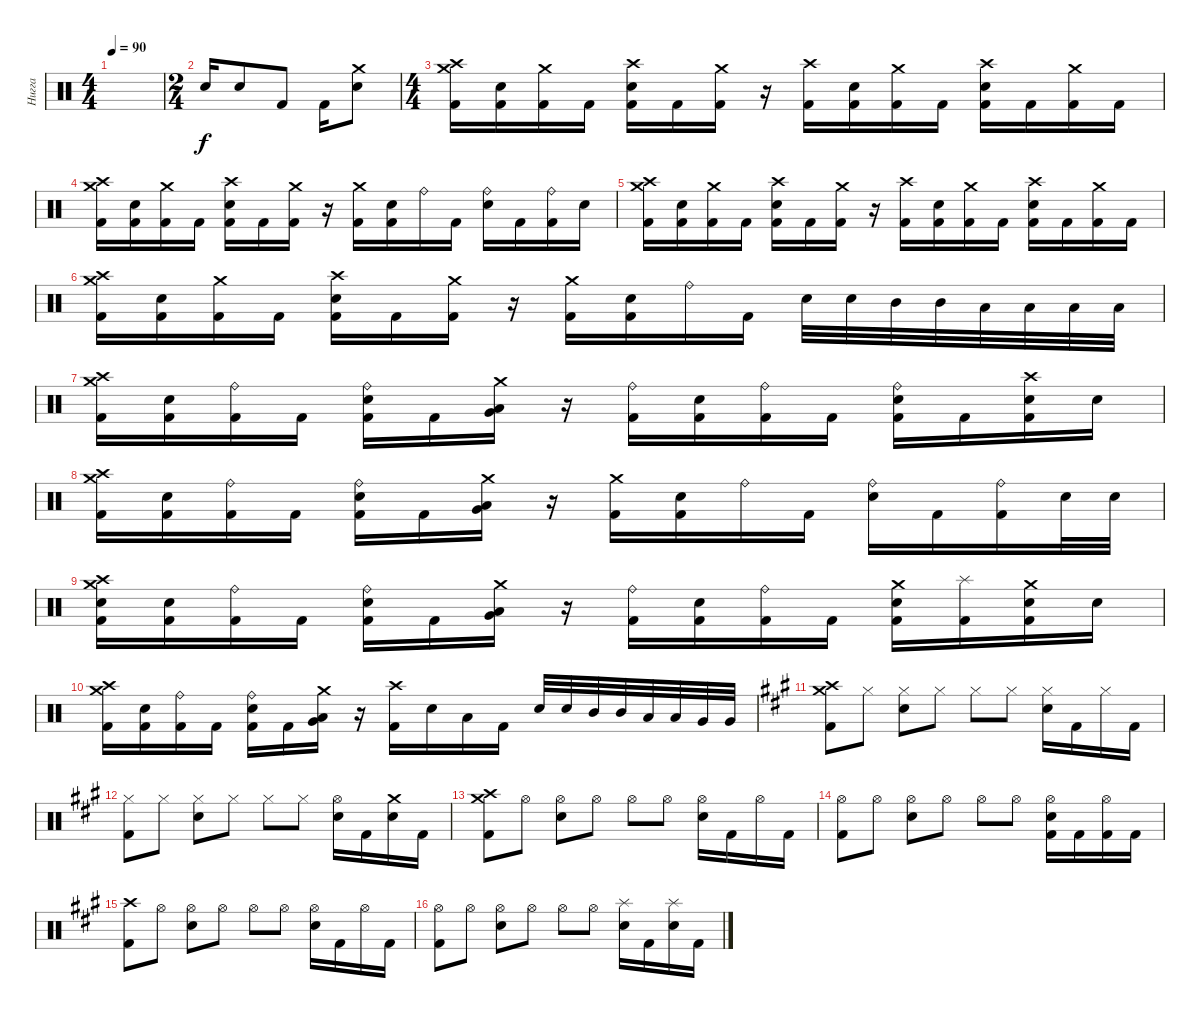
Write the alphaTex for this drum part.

\track ("Нигга" "Нигга") {instrument percussion}
\staff
\articulation defaults
\ts (4 4)
\tempo 90
\clef neutral
\ks c
|
\ts (2 4)
"Electric Snare (hit)".16 "Electric Snare (hit)".8 "Kick (hit) 2".8 "Kick (hit) 2".16 ("Crash medium (hit)" "Electric Snare (hit)").8 |
\ts (4 4)
("Crash high (hit)" "Crash medium (hit)" "Kick (hit) 2").16 ("Electric Snare (hit)" "Kick (hit) 2").16 ("Crash medium (hit)" "Kick (hit) 2").16 "Kick (hit) 2".16 ("Crash high (hit)" "Electric Snare (hit)" "Kick (hit) 2").16 "Kick (hit) 2".16 ("Crash medium (hit)" "Kick (hit) 2").16 r.16 ("Crash high (hit)" "Kick (hit) 2").16 ("Electric Snare (hit)" "Kick (hit) 2").16 ("Crash medium (hit)" "Kick (hit) 2").16 "Kick (hit) 2".16 ("Crash high (hit)" "Electric Snare (hit)" "Kick (hit) 2").16 "Kick (hit) 2".16 ("Crash medium (hit)" "Kick (hit) 2").16 "Kick (hit) 2".16 |
("Crash high (hit)" "Crash medium (hit)" "Kick (hit) 2").16 ("Electric Snare (hit)" "Kick (hit) 2").16 ("Crash medium (hit)" "Kick (hit) 2").16 "Kick (hit) 2".16 ("Crash high (hit)" "Electric Snare (hit)" "Kick (hit) 2").16 "Kick (hit) 2".16 ("Crash medium (hit)" "Kick (hit) 2").16 r.16 ("Crash medium (hit)" "Kick (hit) 2").16 ("Electric Snare (hit)" "Kick (hit) 2").16 "Ride (bell)".16 "Kick (hit) 2".16 ("Ride (bell)" "Electric Snare (hit)").16 "Kick (hit) 2".16 ("Ride (bell)" "Kick (hit) 2").16 "Electric Snare (hit)".16 |
("Crash high (hit)" "Crash medium (hit)" "Kick (hit) 2").16 ("Electric Snare (hit)" "Kick (hit) 2").16 ("Crash medium (hit)" "Kick (hit) 2").16 "Kick (hit) 2".16 ("Crash high (hit)" "Electric Snare (hit)" "Kick (hit) 2").16 "Kick (hit) 2".16 ("Crash medium (hit)" "Kick (hit) 2").16 r.16 ("Crash high (hit)" "Kick (hit) 2").16 ("Electric Snare (hit)" "Kick (hit) 2").16 ("Crash medium (hit)" "Kick (hit) 2").16 "Kick (hit) 2".16 ("Crash high (hit)" "Electric Snare (hit)" "Kick (hit) 2").16 "Kick (hit) 2".16 ("Crash medium (hit)" "Kick (hit) 2").16 "Kick (hit) 2".16 |
("Crash high (hit)" "Crash medium (hit)" "Kick (hit) 2").16 ("Electric Snare (hit)" "Kick (hit) 2").16 ("Crash medium (hit)" "Kick (hit) 2").16 "Kick (hit) 2".16 ("Crash high (hit)" "Electric Snare (hit)" "Kick (hit) 2").16 "Kick (hit) 2".16 ("Crash medium (hit)" "Kick (hit) 2").16 r.16 ("Crash medium (hit)" "Kick (hit) 2").16 ("Electric Snare (hit)" "Kick (hit) 2").16 "Ride (bell)".16 "Kick (hit) 2".16 "Electric Snare (hit)".32 "Electric Snare (hit)".32 "Mid Tom (hit)".32 "Mid Tom (hit)".32 "Low Tom (hit)".32 "Low Tom (hit)".32 "Low Tom (hit)".32 "Low Tom (hit)".32 |
("Crash high (hit)" "Crash medium (hit)" "Kick (hit) 2").16 ("Electric Snare (hit)" "Kick (hit) 2").16 ("Ride (bell)" "Kick (hit) 2").16 "Kick (hit) 2".16 ("Ride (bell)" "Electric Snare (hit)" "Kick (hit) 2").16 "Kick (hit) 2".16 ("Crash medium (hit)" "Very Low Tom (hit)" "Low Tom (hit)").16 r.16 ("Ride (bell)" "Kick (hit) 2").16 ("Electric Snare (hit)" "Kick (hit) 2").16 ("Ride (bell)" "Kick (hit) 2").16 "Kick (hit) 2".16 ("Ride (bell)" "Electric Snare (hit)" "Kick (hit) 2").16 "Kick (hit) 2".16 ("Crash high (hit)" "Electric Snare (hit)" "Kick (hit) 2").16 "Electric Snare (hit)".16 |
("Crash high (hit)" "Crash medium (hit)" "Kick (hit) 2").16 ("Electric Snare (hit)" "Kick (hit) 2").16 ("Ride (bell)" "Kick (hit) 2").16 "Kick (hit) 2".16 ("Ride (bell)" "Electric Snare (hit)" "Kick (hit) 2").16 "Kick (hit) 2".16 ("Crash medium (hit)" "Very Low Tom (hit)" "Low Tom (hit)").16 r.16 ("Crash medium (hit)" "Kick (hit) 2").16 ("Electric Snare (hit)" "Kick (hit) 2").16 "Ride (bell)".16 "Kick (hit) 2".16 ("Ride (bell)" "Electric Snare (hit)").16 "Kick (hit) 2".16 ("Ride (bell)" "Kick (hit) 2").16 "Electric Snare (hit)".32 "Electric Snare (hit)".32 |
("Crash high (hit)" "Crash medium (hit)" "Electric Snare (hit)" "Kick (hit) 2").16 ("Electric Snare (hit)" "Kick (hit) 2").16 ("Ride (bell)" "Kick (hit) 2").16 "Kick (hit) 2".16 ("Ride (bell)" "Electric Snare (hit)" "Kick (hit) 2").16 "Kick (hit) 2".16 ("Crash medium (hit)" "Very Low Tom (hit)" "Low Tom (hit)").16 r.16 ("Ride (bell)" "Kick (hit) 2").16 ("Electric Snare (hit)" "Kick (hit) 2").16 ("Ride (bell)" "Kick (hit) 2").16 "Kick (hit) 2".16 ("Crash medium (hit)" "Electric Snare (hit)" "Kick (hit) 2").16 ("Splash (hit)" "Kick (hit) 2").16 ("Crash medium (hit)" "Electric Snare (hit)" "Kick (hit) 2").16 "Electric Snare (hit)".16 |
("Crash high (hit)" "Crash medium (hit)" "Kick (hit) 2").16 ("Electric Snare (hit)" "Kick (hit) 2").16 ("Ride (bell)" "Kick (hit) 2").16 "Kick (hit) 2".16 ("Ride (bell)" "Electric Snare (hit)" "Kick (hit) 2").16 "Kick (hit) 2".16 ("Crash medium (hit)" "Very Low Tom (hit)" "Low Tom (hit)").16 r.16 ("Crash high (hit)" "Kick (hit) 2").16 "Electric Snare (hit)".16 "Low Tom (hit)".16 "Kick (hit) 2".16 "Electric Snare (hit)".32 "Electric Snare (hit)".32 "Mid Tom (hit)".32 "Mid Tom (hit)".32 "Low Tom (hit)".32 "Low Tom (hit)".32 "Very Low Tom (hit)".32 "Very Low Tom (hit)".32 |
\ks f#minor
("Crash high (hit)" "Crash medium (hit)" "Kick (hit) 2").8 "Hi-Hat (closed)".8 ("Hi-Hat (closed)" "Electric Snare (hit)").8 "Hi-Hat (closed)".8 "Hi-Hat (closed)".8 "Hi-Hat (closed)".8 ("Hi-Hat (closed)" "Electric Snare (hit)").16 "Kick (hit) 2".16 "Hi-Hat (closed)".16 "Kick (hit) 2".16 |
("Hi-Hat (closed)" "Kick (hit) 2").8 "Hi-Hat (closed)".8 ("Hi-Hat (closed)" "Electric Snare (hit)").8 "Hi-Hat (closed)".8 "Hi-Hat (closed)".8 "Hi-Hat (closed)".8 ("Hi-Hat (open)" "Electric Snare (hit)").16 "Kick (hit) 2".16 ("Crash medium (hit)" "Electric Snare (hit)").16 "Kick (hit) 2".16 |
("Crash high (hit)" "Crash medium (hit)" "Kick (hit) 2").8 "Hi-Hat (open)".8 ("Hi-Hat (open)" "Electric Snare (hit)").8 "Hi-Hat (open)".8 "Hi-Hat (open)".8 "Hi-Hat (open)".8 ("Hi-Hat (open)" "Electric Snare (hit)").16 "Kick (hit) 2".16 "Hi-Hat (open)".16 "Kick (hit) 2".16 |
("Hi-Hat (open)" "Kick (hit) 2").8 "Hi-Hat (open)".8 ("Hi-Hat (open)" "Electric Snare (hit)").8 "Hi-Hat (open)".8 "Hi-Hat (open)".8 "Hi-Hat (open)".8 ("Hi-Hat (open)" "Electric Snare (hit)" "Kick (hit) 2").16 "Kick (hit) 2".16 ("Hi-Hat (open)" "Kick (hit) 2").16 "Kick (hit) 2".16 |
("Crash high (hit)" "Kick (hit) 2").8 "Hi-Hat (open)".8 ("Hi-Hat (open)" "Electric Snare (hit)").8 "Hi-Hat (open)".8 "Hi-Hat (open)".8 "Hi-Hat (open)".8 ("Hi-Hat (open)" "Electric Snare (hit)").16 "Kick (hit) 2".16 "Hi-Hat (open)".16 "Kick (hit) 2".16 |
("Hi-Hat (open)" "Kick (hit) 2").8 "Hi-Hat (open)".8 ("Hi-Hat (open)" "Electric Snare (hit)").8 "Hi-Hat (open)".8 "Hi-Hat (open)".8 "Hi-Hat (open)".8 ("Splash (hit)" "Electric Snare (hit)").16 "Kick (hit) 2".16 ("Splash (hit)" "Electric Snare (hit)").16 "Kick (hit) 2".16
